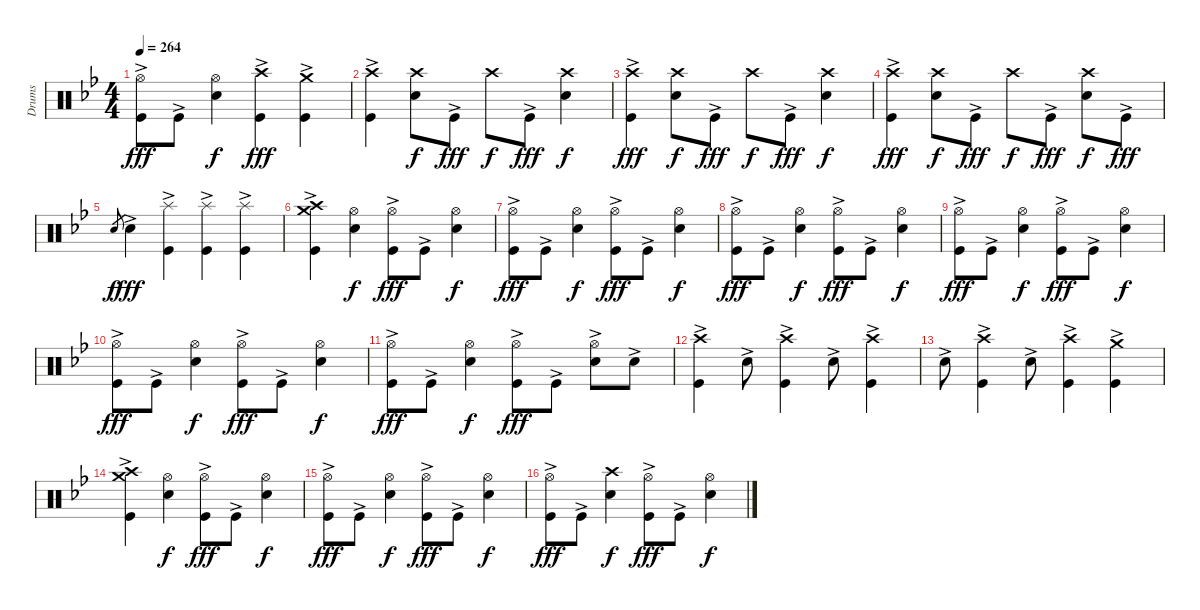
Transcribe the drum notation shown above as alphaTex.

\track ("Drums" "Drums") {instrument percussion}
\staff {score}
\articulation defaults
\ts (4 4)
\tempo 264
\clef neutral
\ks gminor
("Hi-Hat (open)" "Kick (hit)"{ac}).8{dy fff} "Kick (hit)"{ac}.8 ("Hi-Hat (open)" "Snare (hit) 2").4{dy f} ("Crash high (hit)" "Kick (hit)"{ac}).4{dy fff} ("Crash medium (hit)" "Kick (hit)"{ac}).4 |
("Crash high (hit)" "Kick (hit)"{ac}).4 ("Crash high (hit)" "Snare (hit) 2").8{dy f} "Kick (hit)"{ac}.8{dy fff} "Crash high (hit)".8{dy f} "Kick (hit)"{ac}.8{dy fff} ("Crash high (hit)" "Snare (hit) 2").4{dy f} |
("Crash high (hit)" "Kick (hit)"{ac}).4{dy fff} ("Crash high (hit)" "Snare (hit) 2").8{dy f} "Kick (hit)"{ac}.8{dy fff} "Crash high (hit)".8{dy f} "Kick (hit)"{ac}.8{dy fff} ("Crash high (hit)" "Snare (hit) 2").4{dy f} |
("Crash high (hit)" "Kick (hit)"{ac}).4{dy fff} ("Crash high (hit)" "Snare (hit) 2").8{dy f} "Kick (hit)"{ac}.8{dy fff} "Crash high (hit)".8{dy f} "Kick (hit)"{ac}.8{dy fff} ("Crash high (hit)" "Snare (hit) 2").8{dy f} "Kick (hit)"{ac}.8{dy fff} |
"Snare (hit) 2".8{gr dy f} "Snare (hit) 2"{ac}.4{dy fff} ("Splash (hit)" "Kick (hit)"{ac}).4 ("Splash (hit)" "Kick (hit)"{ac}).4 ("Splash (hit)" "Kick (hit)"{ac}).4 |
("Crash high (hit)" "Crash medium (hit)" "Kick (hit)"{ac}).4 ("Hi-Hat (open)" "Snare (hit) 2").4{dy f} ("Hi-Hat (open)" "Kick (hit)"{ac}).8{dy fff} "Kick (hit)"{ac}.8 ("Hi-Hat (open)" "Snare (hit) 2").4{dy f} |
("Hi-Hat (open)" "Kick (hit)"{ac}).8{dy fff} "Kick (hit)"{ac}.8 ("Hi-Hat (open)" "Snare (hit) 2").4{dy f} ("Hi-Hat (open)" "Kick (hit)"{ac}).8{dy fff} "Kick (hit)"{ac}.8 ("Hi-Hat (open)" "Snare (hit) 2").4{dy f} |
("Hi-Hat (open)" "Kick (hit)"{ac}).8{dy fff} "Kick (hit)"{ac}.8 ("Hi-Hat (open)" "Snare (hit) 2").4{dy f} ("Hi-Hat (open)" "Kick (hit)"{ac}).8{dy fff} "Kick (hit)"{ac}.8 ("Hi-Hat (open)" "Snare (hit) 2").4{dy f} |
("Hi-Hat (open)" "Kick (hit)"{ac}).8{dy fff} "Kick (hit)"{ac}.8 ("Hi-Hat (open)" "Snare (hit) 2").4{dy f} ("Hi-Hat (open)" "Kick (hit)"{ac}).8{dy fff} "Kick (hit)"{ac}.8 ("Hi-Hat (open)" "Snare (hit) 2").4{dy f} |
("Hi-Hat (open)" "Kick (hit)"{ac}).8{dy fff} "Kick (hit)"{ac}.8 ("Hi-Hat (open)" "Snare (hit) 2").4{dy f} ("Hi-Hat (open)" "Kick (hit)"{ac}).8{dy fff} "Kick (hit)"{ac}.8 ("Hi-Hat (open)" "Snare (hit) 2").4{dy f} |
("Hi-Hat (open)" "Kick (hit)"{ac}).8{dy fff} "Kick (hit)"{ac}.8 ("Hi-Hat (open)" "Snare (hit) 2").4{dy f} ("Hi-Hat (open)" "Kick (hit)"{ac}).8{dy fff} "Kick (hit)"{ac}.8 ("Hi-Hat (open)" "Snare (hit) 2"{ac}).8 "Snare (hit) 2"{ac}.8 |
("Crash high (hit)" "Kick (hit)"{ac}).4 "Snare (hit) 2"{ac}.8 ("Crash high (hit)" "Kick (hit)"{ac}).4 "Snare (hit) 2"{ac}.8 ("Crash high (hit)" "Kick (hit)"{ac}).4 |
"Snare (hit) 2"{ac}.8 ("Crash high (hit)" "Kick (hit)"{ac}).4 "Snare (hit) 2"{ac}.8 ("Crash high (hit)" "Kick (hit)"{ac}).4 ("Crash medium (hit)" "Kick (hit)"{ac}).4 |
("Crash high (hit)" "Crash medium (hit)" "Kick (hit)"{ac}).4 ("Hi-Hat (open)" "Snare (hit) 2").4{dy f} ("Hi-Hat (open)" "Kick (hit)"{ac}).8{dy fff} "Kick (hit)"{ac}.8 ("Hi-Hat (open)" "Snare (hit) 2").4{dy f} |
("Hi-Hat (open)" "Kick (hit)"{ac}).8{dy fff} "Kick (hit)"{ac}.8 ("Hi-Hat (open)" "Snare (hit) 2").4{dy f} ("Hi-Hat (open)" "Kick (hit)"{ac}).8{dy fff} "Kick (hit)"{ac}.8 ("Hi-Hat (open)" "Snare (hit) 2").4{dy f} |
("Hi-Hat (open)" "Kick (hit)"{ac}).8{dy fff} "Kick (hit)"{ac}.8 ("Crash high (hit)" "Snare (hit) 2").4{dy f} ("Hi-Hat (open)" "Kick (hit)"{ac}).8{dy fff} "Kick (hit)"{ac}.8 ("Hi-Hat (open)" "Snare (hit) 2").4{dy f}
